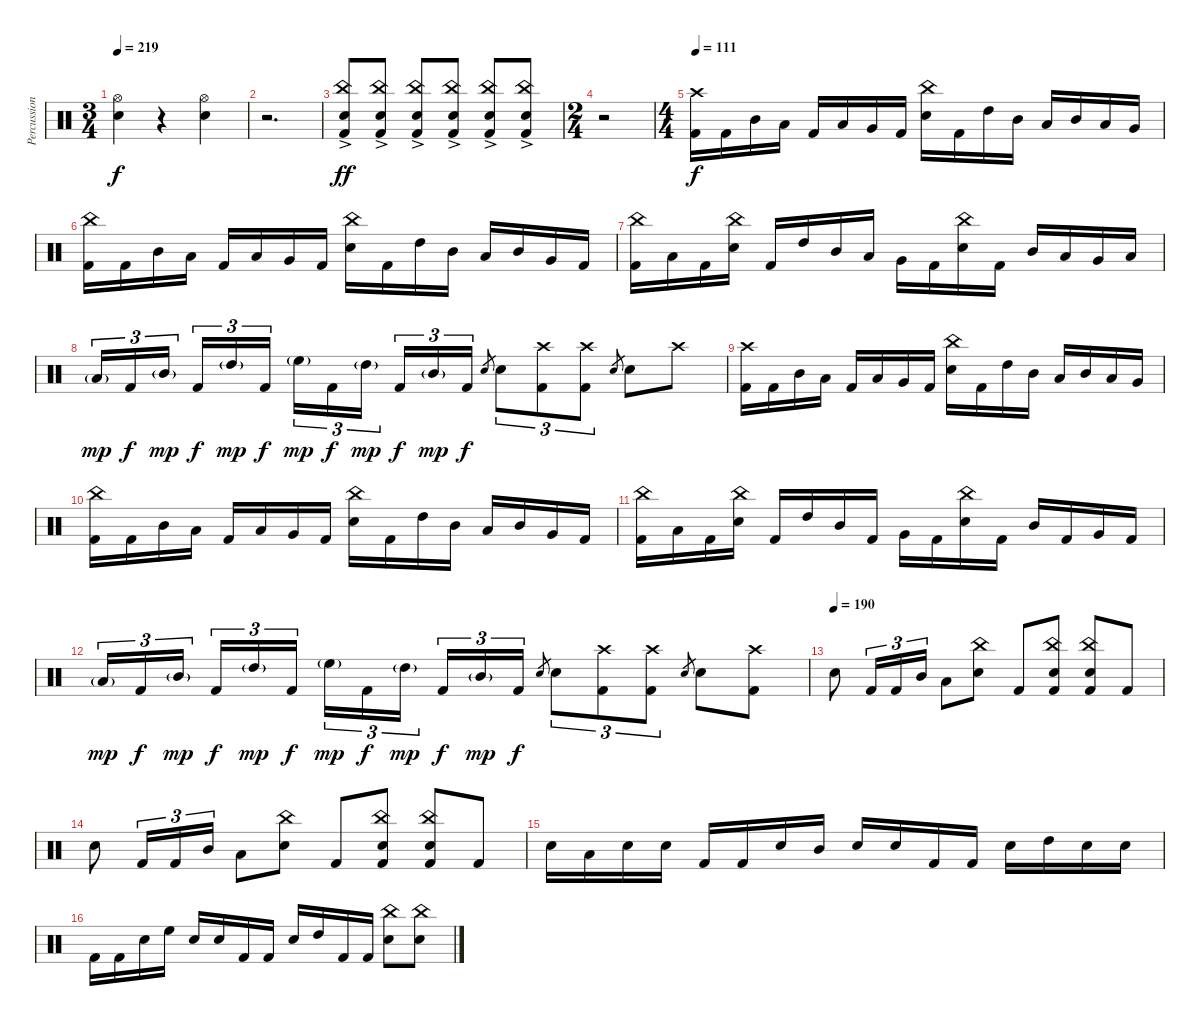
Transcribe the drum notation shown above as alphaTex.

\track ("Percussion" "Percussion") {instrument percussion}
\staff {score}
\articulation defaults
\ts (3 4)
\tempo 219
\clef neutral
\ks c
("Hi-Hat (open)" "Electric Snare (hit)").4{dy f volume 13} r.4 ("Hi-Hat (open)" "Electric Snare (hit)").4 |
r.2{d} |
("China (hit)"{ac} "Electric Snare (hit)"{ac} "Kick (hit) 2"{ac}).8{dy ff} ("China (hit)"{ac} "Electric Snare (hit)"{ac} "Kick (hit) 2"{ac}).8 ("China (hit)"{ac} "Electric Snare (hit)"{ac} "Kick (hit) 2"{ac}).8 ("China (hit)"{ac} "Electric Snare (hit)"{ac} "Kick (hit) 2"{ac}).8 ("China (hit)"{ac} "Electric Snare (hit)"{ac} "Kick (hit) 2"{ac}).8 ("China (hit)"{ac} "Electric Snare (hit)"{ac} "Kick (hit) 2"{ac}).8 |
\ts (2 4)
r.2 |
\ts (4 4)
\tempo 111
("Crash high (hit)" "Kick (hit) 2").16{dy f} "Kick (hit) 2".16 "Mid Tom (hit)".16 "Low Tom (hit)".16 "Kick (hit) 2".16 "Low Tom (hit)".16 "Very Low Tom (hit)".16 "Kick (hit) 2".16 ("China (hit)" "Electric Snare (hit)").16 "Kick (hit) 2".16 "High Tom (hit)".16 "Mid Tom (hit)".16 "Low Tom (hit)".16 "Mid Tom (hit)".16 "Low Tom (hit)".16 "Very Low Tom (hit)".16 |
("China (hit)" "Kick (hit) 2").16 "Kick (hit) 2".16 "Mid Tom (hit)".16 "Low Tom (hit)".16 "Kick (hit) 2".16 "Low Tom (hit)".16 "Very Low Tom (hit)".16 "Kick (hit) 2".16 ("China (hit)" "Electric Snare (hit)").16 "Kick (hit) 2".16 "High Tom (hit)".16 "Mid Tom (hit)".16 "Low Tom (hit)".16 "Mid Tom (hit)".16 "Very Low Tom (hit)".16 "Kick (hit) 2".16 |
("China (hit)" "Kick (hit) 2").16 "Low Tom (hit)".16 "Kick (hit) 2".16 ("Electric Snare (hit)" "China (hit)").16 "Kick (hit) 2".16 "High Tom (hit)".16 "Mid Tom (hit)".16 "Low Tom (hit)".16 "Very Low Tom (hit)".16 "Kick (hit) 2".16 ("Electric Snare (hit)" "China (hit)").16 "Kick (hit) 2".16 "Mid Tom (hit)".16 "Low Tom (hit)".16 "Very Low Tom (hit)".16 "Low Floor Tom (hit)".16 |
"Low Tom (hit)"{g}.16{tu (3 2) dy mp} "Kick (hit) 2".16{tu (3 2) dy f} "Mid Tom (hit)"{g}.16{tu (3 2) dy mp} "Kick (hit) 2".16{tu (3 2) dy f} "High Tom (hit)"{g}.16{tu (3 2) dy mp} "Kick (hit) 2".16{tu (3 2) dy f} "High Floor Tom (hit)"{g}.16{tu (3 2) dy mp} "Kick (hit) 2".16{tu (3 2) dy f} "High Tom (hit)"{g}.16{tu (3 2) dy mp} "Kick (hit) 2".16{tu (3 2) dy f} "Mid Tom (hit)"{g}.16{tu (3 2) dy mp} "Kick (hit) 2".16{tu (3 2) dy f} "Electric Snare (hit)".8{gr} "Electric Snare (hit)".8{tu (3 2)} ("Crash high (hit)" "Kick (hit) 2").8{tu (3 2)} ("Crash high (hit)" "Kick (hit) 2").8{tu (3 2)} "Electric Snare (hit)".8{gr} "Electric Snare (hit)".8 "Crash high (hit)".8 |
("Crash high (hit)" "Kick (hit) 2").16 "Kick (hit) 2".16 "Mid Tom (hit)".16 "Low Tom (hit)".16 "Kick (hit) 2".16 "Low Tom (hit)".16 "Very Low Tom (hit)".16 "Kick (hit) 2".16 ("China (hit)" "Electric Snare (hit)").16 "Kick (hit) 2".16 "High Tom (hit)".16 "Mid Tom (hit)".16 "Low Tom (hit)".16 "Mid Tom (hit)".16 "Low Tom (hit)".16 "Very Low Tom (hit)".16 |
("China (hit)" "Kick (hit) 2").16 "Kick (hit) 2".16 "Mid Tom (hit)".16 "Low Tom (hit)".16 "Kick (hit) 2".16 "Low Tom (hit)".16 "Very Low Tom (hit)".16 "Kick (hit) 2".16 ("China (hit)" "Electric Snare (hit)").16 "Kick (hit) 2".16 "High Tom (hit)".16 "Mid Tom (hit)".16 "Low Tom (hit)".16 "Mid Tom (hit)".16 "Very Low Tom (hit)".16 "Kick (hit) 2".16 |
("China (hit)" "Kick (hit) 2").16 "Low Tom (hit)".16 "Kick (hit) 2".16 ("Electric Snare (hit)" "China (hit)").16 "Kick (hit) 2".16 "High Tom (hit)".16 "Mid Tom (hit)".16 "Kick (hit) 2".16 "Very Low Tom (hit)".16 "Kick (hit) 2".16 ("Electric Snare (hit)" "China (hit)").16 "Kick (hit) 2".16 "Mid Tom (hit)".16 "Kick (hit) 2".16 "Very Low Tom (hit)".16 "Kick (hit) 2".16 |
"Low Tom (hit)"{g}.16{tu (3 2) dy mp} "Kick (hit) 2".16{tu (3 2) dy f} "Mid Tom (hit)"{g}.16{tu (3 2) dy mp} "Kick (hit) 2".16{tu (3 2) dy f} "High Tom (hit)"{g}.16{tu (3 2) dy mp} "Kick (hit) 2".16{tu (3 2) dy f} "High Floor Tom (hit)"{g}.16{tu (3 2) dy mp} "Kick (hit) 2".16{tu (3 2) dy f} "High Tom (hit)"{g}.16{tu (3 2) dy mp} "Kick (hit) 2".16{tu (3 2) dy f} "Mid Tom (hit)"{g}.16{tu (3 2) dy mp} "Kick (hit) 2".16{tu (3 2) dy f} "Electric Snare (hit)".8{gr} "Electric Snare (hit)".8{tu (3 2)} ("Crash high (hit)" "Kick (hit) 2").8{tu (3 2)} ("Crash high (hit)" "Kick (hit) 2").8{tu (3 2)} "Electric Snare (hit)".8{gr} "Electric Snare (hit)".8 ("Crash high (hit)" "Kick (hit) 2").8 |
\tempo (190)
"Electric Snare (hit)".8 "Kick (hit) 2".16{tu (3 2)} "Kick (hit) 2".16{tu (3 2)} "Mid Tom (hit)".16{tu (3 2)} "Low Tom (hit)".8 ("China (hit)" "Electric Snare (hit)").8 "Kick (hit) 2".8 ("China (hit)" "Electric Snare (hit)" "Kick (hit) 2").8 ("China (hit)" "Electric Snare (hit)" "Kick (hit) 2").8 "Kick (hit) 2".8 |
"Electric Snare (hit)".8 "Kick (hit) 2".16{tu (3 2)} "Kick (hit) 2".16{tu (3 2)} "Mid Tom (hit)".16{tu (3 2)} "Low Tom (hit)".8 ("China (hit)" "Electric Snare (hit)").8 "Kick (hit) 2".8 ("China (hit)" "Electric Snare (hit)" "Kick (hit) 2").8 ("China (hit)" "Electric Snare (hit)" "Kick (hit) 2").8 "Kick (hit) 2".8 |
"Electric Snare (hit)".16 "Low Tom (hit)".16 "Electric Snare (hit)".16 "Electric Snare (hit)".16 "Kick (hit) 2".16 "Kick (hit) 2".16 "Electric Snare (hit)".16 "Mid Tom (hit)".16 "Electric Snare (hit)".16 "Electric Snare (hit)".16 "Kick (hit) 2".16 "Kick (hit) 2".16 "Electric Snare (hit)".16 "High Tom (hit)".16 "Electric Snare (hit)".16 "Electric Snare (hit)".16 |
"Kick (hit) 2".16 "Kick (hit) 2".16 "Electric Snare (hit)".16 "High Floor Tom (hit)".16 "Electric Snare (hit)".16 "Electric Snare (hit)".16 "Kick (hit) 2".16 "Kick (hit) 2".16 "Electric Snare (hit)".16 "High Tom (hit)".16 "Kick (hit) 2".16 "Kick (hit) 2".16 ("Electric Snare (hit)" "China (hit)").8 ("Electric Snare (hit)" "China (hit)").8
